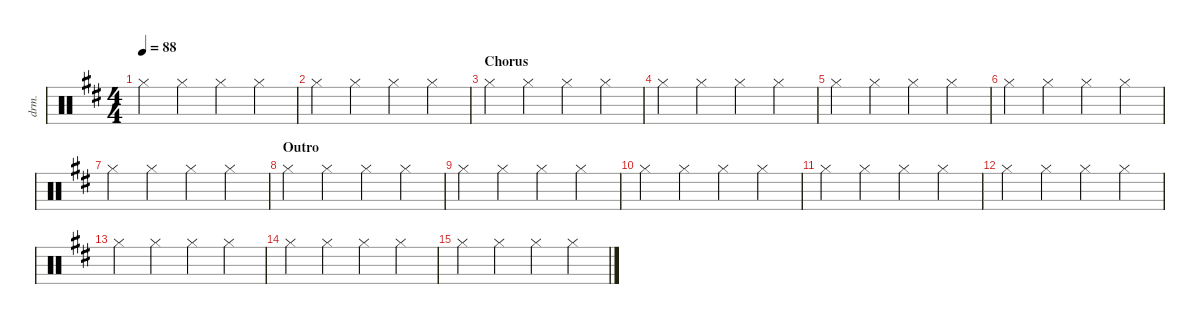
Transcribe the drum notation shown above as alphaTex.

\defaultSystemsLayout 4
\hideDynamics
\bracketExtendMode nobrackets
\otherSystemsTrackNameOrientation horizontal
\track ("Drumkit" "drm.") {instrument percussion}
\staff {score}
\articulation defaults
\ts (4 4)
\tempo 88
\clef neutral
\ks d "Hi-Hat (closed)"{acc forcenatural}.4{dy mf} "Hi-Hat (closed)"{acc forcenatural}.4 "Hi-Hat (closed)"{acc forcenatural}.4 "Hi-Hat (closed)"{acc forcenatural}.4
|
"Hi-Hat (closed)"{acc forcenatural}.4 "Hi-Hat (closed)"{acc forcenatural}.4 "Hi-Hat (closed)"{acc forcenatural}.4 "Hi-Hat (closed)"{acc forcenatural}.4 |
\section ("" "Chorus")
"Hi-Hat (closed)"{acc forcenatural}.4 "Hi-Hat (closed)"{acc forcenatural}.4 "Hi-Hat (closed)"{acc forcenatural}.4 "Hi-Hat (closed)"{acc forcenatural}.4 |
"Hi-Hat (closed)"{acc forcenatural}.4 "Hi-Hat (closed)"{acc forcenatural}.4 "Hi-Hat (closed)"{acc forcenatural}.4 "Hi-Hat (closed)"{acc forcenatural}.4 |
"Hi-Hat (closed)"{acc forcenatural}.4 "Hi-Hat (closed)"{acc forcenatural}.4 "Hi-Hat (closed)"{acc forcenatural}.4 "Hi-Hat (closed)"{acc forcenatural}.4 |
"Hi-Hat (closed)"{acc forcenatural}.4 "Hi-Hat (closed)"{acc forcenatural}.4 "Hi-Hat (closed)"{acc forcenatural}.4 "Hi-Hat (closed)"{acc forcenatural}.4 |
"Hi-Hat (closed)"{acc forcenatural}.4 "Hi-Hat (closed)"{acc forcenatural}.4 "Hi-Hat (closed)"{acc forcenatural}.4 "Hi-Hat (closed)"{acc forcenatural}.4 |
\section ("" "Outro")
"Hi-Hat (closed)"{acc forcenatural}.4 "Hi-Hat (closed)"{acc forcenatural}.4 "Hi-Hat (closed)"{acc forcenatural}.4 "Hi-Hat (closed)"{acc forcenatural}.4 |
"Hi-Hat (closed)"{acc forcenatural}.4 "Hi-Hat (closed)"{acc forcenatural}.4 "Hi-Hat (closed)"{acc forcenatural}.4 "Hi-Hat (closed)"{acc forcenatural}.4 |
"Hi-Hat (closed)"{acc forcenatural}.4 "Hi-Hat (closed)"{acc forcenatural}.4 "Hi-Hat (closed)"{acc forcenatural}.4 "Hi-Hat (closed)"{acc forcenatural}.4 |
"Hi-Hat (closed)"{acc forcenatural}.4 "Hi-Hat (closed)"{acc forcenatural}.4 "Hi-Hat (closed)"{acc forcenatural}.4 "Hi-Hat (closed)"{acc forcenatural}.4 |
"Hi-Hat (closed)"{acc forcenatural}.4 "Hi-Hat (closed)"{acc forcenatural}.4 "Hi-Hat (closed)"{acc forcenatural}.4 "Hi-Hat (closed)"{acc forcenatural}.4 |
"Hi-Hat (closed)"{acc forcenatural}.4 "Hi-Hat (closed)"{acc forcenatural}.4 "Hi-Hat (closed)"{acc forcenatural}.4 "Hi-Hat (closed)"{acc forcenatural}.4 |
"Hi-Hat (closed)"{acc forcenatural}.4 "Hi-Hat (closed)"{acc forcenatural}.4 "Hi-Hat (closed)"{acc forcenatural}.4 "Hi-Hat (closed)"{acc forcenatural}.4 |
"Hi-Hat (closed)"{acc forcenatural}.4 "Hi-Hat (closed)"{acc forcenatural}.4 "Hi-Hat (closed)"{acc forcenatural}.4 "Hi-Hat (closed)"{acc forcenatural}.4
